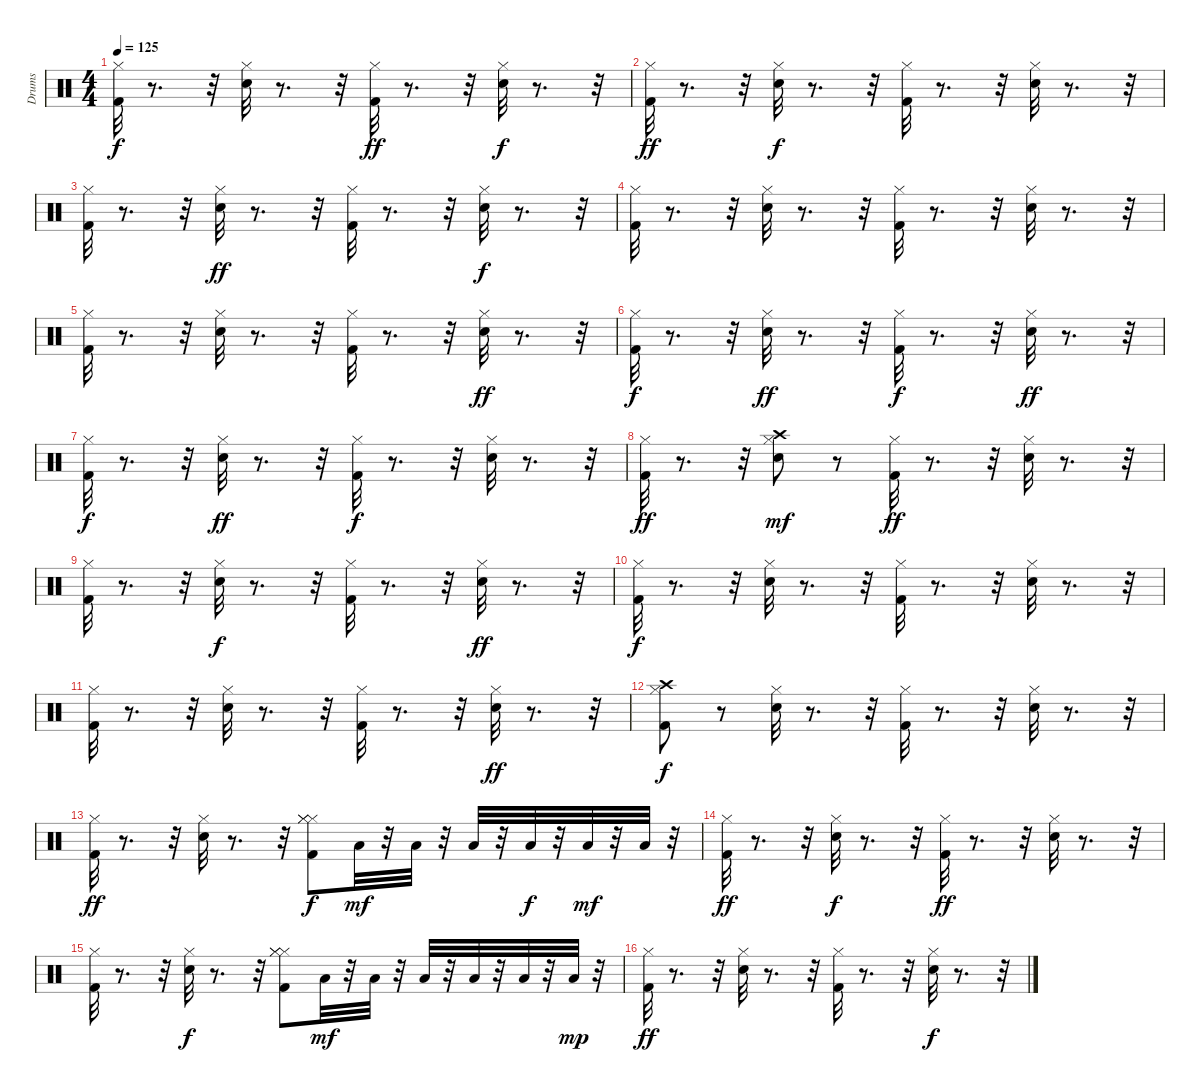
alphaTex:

\track ("Drums" "Drums") {instrument percussion}
\staff {score}
\articulation defaults
\ts (4 4)
\tempo 125
\clef neutral
\ks c
("Hi-Hat (closed)" "Kick (hit) 2").32{dy f} r.8{d} r.32 ("Hi-Hat (closed)" "Snare (hit) 2").32 r.8{d} r.32 ("Kick (hit) 2" "Hi-Hat (closed)").32{dy ff} r.8{d} r.32 ("Snare (hit) 2" "Hi-Hat (closed)").32{dy f} r.8{d} r.32 |
("Hi-Hat (closed)" "Kick (hit) 2").32{dy ff} r.8{d} r.32 ("Snare (hit) 2" "Hi-Hat (closed)").32{dy f} r.8{d} r.32 ("Kick (hit) 2" "Hi-Hat (closed)").32 r.8{d} r.32 ("Hi-Hat (closed)" "Snare (hit) 2").32 r.8{d} r.32 |
("Kick (hit) 2" "Hi-Hat (closed)").32 r.8{d} r.32 ("Hi-Hat (closed)" "Snare (hit) 2").32{dy ff} r.8{d} r.32 ("Kick (hit) 2" "Hi-Hat (closed)").32 r.8{d} r.32 ("Hi-Hat (closed)" "Snare (hit) 2").32{dy f} r.8{d} r.32 |
("Hi-Hat (closed)" "Kick (hit) 2").32 r.8{d} r.32 ("Snare (hit) 2" "Hi-Hat (closed)").32 r.8{d} r.32 ("Hi-Hat (closed)" "Kick (hit) 2").32 r.8{d} r.32 ("Snare (hit) 2" "Hi-Hat (closed)").32 r.8{d} r.32 |
("Hi-Hat (closed)" "Kick (hit) 2").32 r.8{d} r.32 ("Snare (hit) 2" "Hi-Hat (closed)").32 r.8{d} r.32 ("Hi-Hat (closed)" "Kick (hit) 2").32 r.8{d} r.32 ("Hi-Hat (closed)" "Snare (hit) 2").32{dy ff} r.8{d} r.32 |
("Kick (hit) 2" "Hi-Hat (closed)").32{dy f} r.8{d} r.32 ("Snare (hit) 2" "Hi-Hat (closed)").32{dy ff} r.8{d} r.32 ("Kick (hit) 2" "Hi-Hat (closed)").32{dy f} r.8{d} r.32 ("Snare (hit) 2" "Hi-Hat (closed)").32{dy ff} r.8{d} r.32 |
("Kick (hit) 2" "Hi-Hat (closed)").32{dy f} r.8{d} r.32 ("Hi-Hat (closed)" "Snare (hit) 2").32{dy ff} r.8{d} r.32 ("Hi-Hat (closed)" "Kick (hit) 2").32{dy f} r.8{d} r.32 ("Hi-Hat (closed)" "Snare (hit) 2").32 r.8{d} r.32 |
("Hi-Hat (closed)" "Kick (hit) 2").32{dy ff} r.8{d} r.32 ("Snare (hit) 2" "Crash high (hit)" "Hi-Hat (closed)").8{dy mf} r.8 ("Kick (hit) 2" "Hi-Hat (closed)").32{dy ff} r.8{d} r.32 ("Hi-Hat (closed)" "Snare (hit) 2").32 r.8{d} r.32 |
("Kick (hit) 2" "Hi-Hat (closed)").32 r.8{d} r.32 ("Snare (hit) 2" "Hi-Hat (closed)").32{dy f} r.8{d} r.32 ("Kick (hit) 2" "Hi-Hat (closed)").32 r.8{d} r.32 ("Hi-Hat (closed)" "Snare (hit) 2").32{dy ff} r.8{d} r.32 |
("Hi-Hat (closed)" "Kick (hit) 2").32{dy f} r.8{d} r.32 ("Hi-Hat (closed)" "Snare (hit) 2").32 r.8{d} r.32 ("Hi-Hat (closed)" "Kick (hit) 2").32 r.8{d} r.32 ("Snare (hit) 2" "Hi-Hat (closed)").32 r.8{d} r.32 |
("Hi-Hat (closed)" "Kick (hit) 2").32 r.8{d} r.32 ("Snare (hit) 2" "Hi-Hat (closed)").32 r.8{d} r.32 ("Hi-Hat (closed)" "Kick (hit) 2").32 r.8{d} r.32 ("Hi-Hat (closed)" "Snare (hit) 2").32{dy ff} r.8{d} r.32 |
("Hi-Hat (closed)" "Kick (hit) 2" "Crash high (hit)").8{dy f} r.8 ("Snare (hit) 2" "Hi-Hat (closed)").32 r.8{d} r.32 ("Kick (hit) 2" "Hi-Hat (closed)").32 r.8{d} r.32 ("Snare (hit) 2" "Hi-Hat (closed)").32 r.8{d} r.32 |
("Hi-Hat (closed)" "Kick (hit) 2").32{dy ff} r.8{d} r.32 ("Hi-Hat (closed)" "Snare (hit) 2").32 r.8{d} r.32 ("Hi-Hat (closed)" "Hi-Hat (closed)" "Kick (hit) 2" "Hi-Hat (closed)").8{dy f} "Low Floor Tom (hit)".32{dy mf} r.32 "Low Floor Tom (hit)".32 r.32 "Low Floor Tom (hit)".32 r.32 "Low Floor Tom (hit)".32{dy f} r.32 "Low Floor Tom (hit)".32{dy mf} r.32 "Low Floor Tom (hit)".32 r.32 |
("Hi-Hat (closed)" "Kick (hit) 2").32{dy ff} r.8{d} r.32 ("Snare (hit) 2" "Hi-Hat (closed)").32{dy f} r.8{d} r.32 ("Kick (hit) 2" "Hi-Hat (closed)").32{dy ff} r.8{d} r.32 ("Hi-Hat (closed)" "Snare (hit) 2").32 r.8{d} r.32 |
("Kick (hit) 2" "Hi-Hat (closed)").32 r.8{d} r.32 ("Snare (hit) 2" "Hi-Hat (closed)").32{dy f} r.8{d} r.32 ("Kick (hit) 2" "Hi-Hat (closed)" "Hi-Hat (closed)" "Hi-Hat (closed)").8 "Low Floor Tom (hit)".32{dy mf} r.32 "Low Floor Tom (hit)".32 r.32 "Low Floor Tom (hit)".32 r.32 "Low Floor Tom (hit)".32 r.32 "Low Floor Tom (hit)".32 r.32 "Low Floor Tom (hit)".32{dy mp} r.32 |
("Hi-Hat (closed)" "Kick (hit) 2").32{dy ff} r.8{d} r.32 ("Hi-Hat (closed)" "Snare (hit) 2").32 r.8{d} r.32 ("Kick (hit) 2" "Hi-Hat (closed)").32 r.8{d} r.32 ("Hi-Hat (closed)" "Snare (hit) 2").32{dy f} r.8{d} r.32
